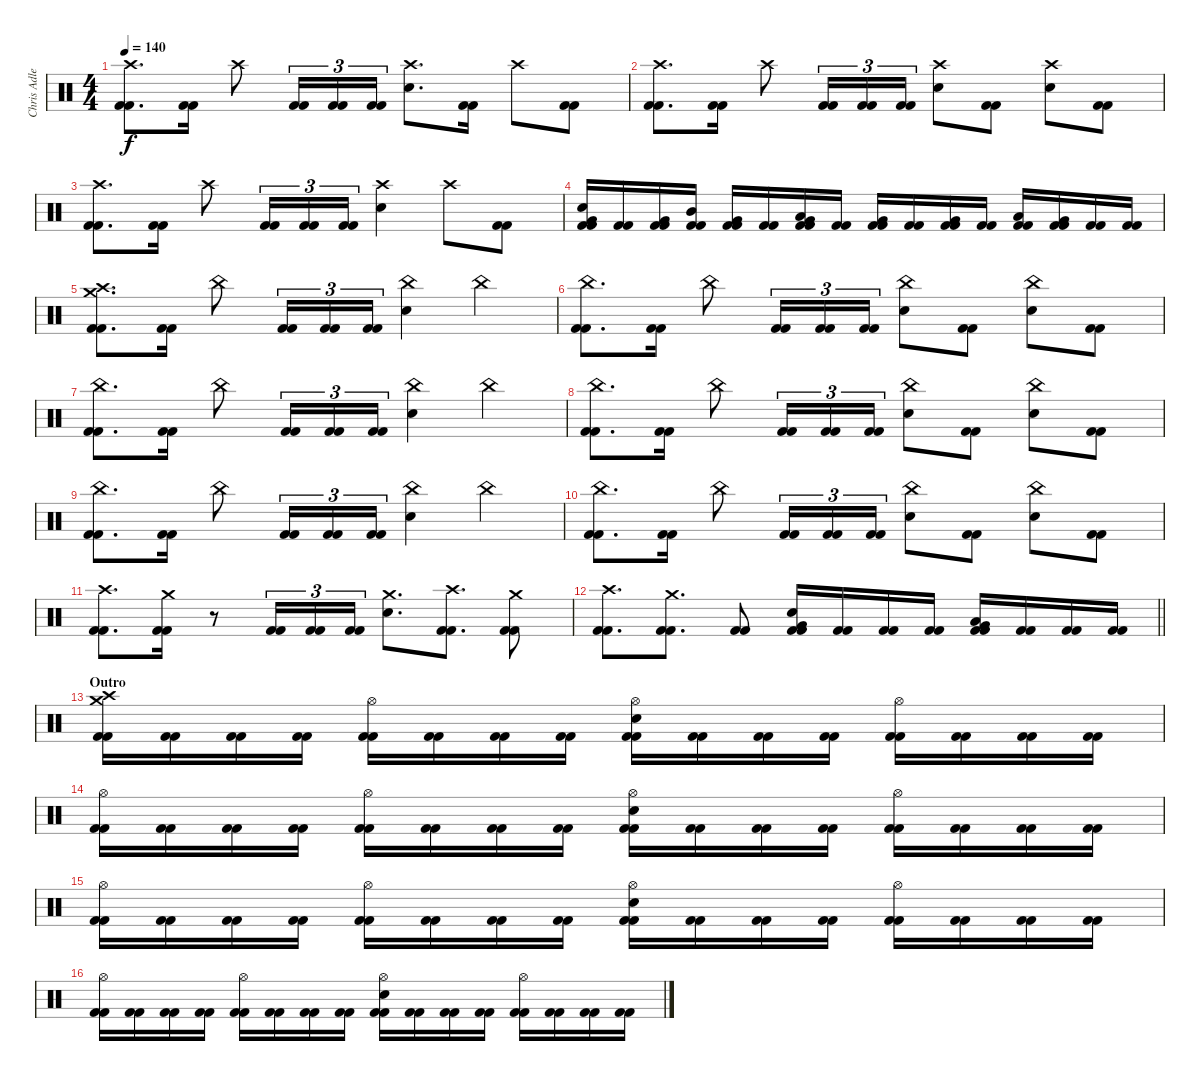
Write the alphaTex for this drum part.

\track ("Chris Adler" "Chris Adle") {instrument percussion}
\staff {score}
\articulation defaults
\ts (4 4)
\tempo 140
\clef neutral
\ks c
("Crash high (hit)" "Kick (hit) 2" "Kick (hit) 2").8{d dy f} ("Kick (hit) 2" "Kick (hit) 2").16 "Crash high (hit)".8 ("Kick (hit) 2" "Kick (hit) 2").16{tu (3 2)} ("Kick (hit) 2" "Kick (hit) 2").16{tu (3 2)} ("Kick (hit) 2" "Kick (hit) 2").16{tu (3 2)} ("Crash high (hit)" "Electric Snare (hit)").8{d} ("Kick (hit) 2" "Kick (hit) 2").16 "Crash high (hit)".8 ("Kick (hit) 2" "Kick (hit) 2").8 |
("Crash high (hit)" "Kick (hit) 2" "Kick (hit) 2").8{d} ("Kick (hit) 2" "Kick (hit) 2").16 "Crash high (hit)".8 ("Kick (hit) 2" "Kick (hit) 2").16{tu (3 2)} ("Kick (hit) 2" "Kick (hit) 2").16{tu (3 2)} ("Kick (hit) 2" "Kick (hit) 2").16{tu (3 2)} ("Crash high (hit)" "Electric Snare (hit)").8 ("Kick (hit) 2" "Kick (hit) 2").8 ("Crash high (hit)" "Electric Snare (hit)").8 ("Kick (hit) 2" "Kick (hit) 2").8 |
("Crash high (hit)" "Kick (hit) 2" "Kick (hit) 2").8{d} ("Kick (hit) 2" "Kick (hit) 2").16 "Crash high (hit)".8 ("Kick (hit) 2" "Kick (hit) 2").16{tu (3 2)} ("Kick (hit) 2" "Kick (hit) 2").16{tu (3 2)} ("Kick (hit) 2" "Kick (hit) 2").16{tu (3 2)} ("Crash high (hit)" "Electric Snare (hit)").4 "Crash high (hit)".8 ("Kick (hit) 2" "Kick (hit) 2").8 |
("Very Low Tom (hit)" "Electric Snare (hit)" "Kick (hit) 2" "Kick (hit) 2").16 ("Kick (hit) 2" "Kick (hit) 2").16 ("Very Low Tom (hit)" "Kick (hit) 2" "Kick (hit) 2").16 ("Mid Tom (hit)" "Kick (hit) 2" "Kick (hit) 2").16 ("Very Low Tom (hit)" "Kick (hit) 2" "Kick (hit) 2").16 ("Kick (hit) 2" "Kick (hit) 2").16 ("Low Tom (hit)" "Very Low Tom (hit)" "Kick (hit) 2" "Kick (hit) 2").16 ("Kick (hit) 2" "Kick (hit) 2").16 ("Very Low Tom (hit)" "Kick (hit) 2" "Kick (hit) 2").16 ("Kick (hit) 2" "Kick (hit) 2").16 ("Very Low Tom (hit)" "Kick (hit) 2" "Kick (hit) 2").16 ("Kick (hit) 2" "Kick (hit) 2").16 ("Low Floor Tom (hit)" "Kick (hit) 2" "Kick (hit) 2").16 ("Very Low Tom (hit)" "Kick (hit) 2" "Kick (hit) 2").16 ("Kick (hit) 2" "Kick (hit) 2").16 ("Kick (hit) 2" "Kick (hit) 2").16 |
("Crash medium (hit)" "Crash high (hit)" "Kick (hit) 2" "Kick (hit) 2").8{d} ("Kick (hit) 2" "Kick (hit) 2").16 "China (hit)".8 ("Kick (hit) 2" "Kick (hit) 2").16{tu (3 2)} ("Kick (hit) 2" "Kick (hit) 2").16{tu (3 2)} ("Kick (hit) 2" "Kick (hit) 2").16{tu (3 2)} ("China (hit)" "Electric Snare (hit)").4 "China (hit)".4 |
("China (hit)" "Kick (hit) 2" "Kick (hit) 2").8{d} ("Kick (hit) 2" "Kick (hit) 2").16 "China (hit)".8 ("Kick (hit) 2" "Kick (hit) 2").16{tu (3 2)} ("Kick (hit) 2" "Kick (hit) 2").16{tu (3 2)} ("Kick (hit) 2" "Kick (hit) 2").16{tu (3 2)} ("China (hit)" "Electric Snare (hit)").8 ("Kick (hit) 2" "Kick (hit) 2").8 ("China (hit)" "Electric Snare (hit)").8 ("Kick (hit) 2" "Kick (hit) 2").8 |
("China (hit)" "Kick (hit) 2" "Kick (hit) 2").8{d} ("Kick (hit) 2" "Kick (hit) 2").16 "China (hit)".8 ("Kick (hit) 2" "Kick (hit) 2").16{tu (3 2)} ("Kick (hit) 2" "Kick (hit) 2").16{tu (3 2)} ("Kick (hit) 2" "Kick (hit) 2").16{tu (3 2)} ("China (hit)" "Electric Snare (hit)").4 "China (hit)".4 |
("China (hit)" "Kick (hit) 2" "Kick (hit) 2").8{d} ("Kick (hit) 2" "Kick (hit) 2").16 "China (hit)".8 ("Kick (hit) 2" "Kick (hit) 2").16{tu (3 2)} ("Kick (hit) 2" "Kick (hit) 2").16{tu (3 2)} ("Kick (hit) 2" "Kick (hit) 2").16{tu (3 2)} ("China (hit)" "Electric Snare (hit)").8 ("Kick (hit) 2" "Kick (hit) 2").8 ("China (hit)" "Electric Snare (hit)").8 ("Kick (hit) 2" "Kick (hit) 2").8 |
("China (hit)" "Kick (hit) 2" "Kick (hit) 2").8{d} ("Kick (hit) 2" "Kick (hit) 2").16 "China (hit)".8 ("Kick (hit) 2" "Kick (hit) 2").16{tu (3 2)} ("Kick (hit) 2" "Kick (hit) 2").16{tu (3 2)} ("Kick (hit) 2" "Kick (hit) 2").16{tu (3 2)} ("China (hit)" "Electric Snare (hit)").4 "China (hit)".4 |
("China (hit)" "Kick (hit) 2" "Kick (hit) 2").8{d} ("Kick (hit) 2" "Kick (hit) 2").16 "China (hit)".8 ("Kick (hit) 2" "Kick (hit) 2").16{tu (3 2)} ("Kick (hit) 2" "Kick (hit) 2").16{tu (3 2)} ("Kick (hit) 2" "Kick (hit) 2").16{tu (3 2)} ("China (hit)" "Electric Snare (hit)").8 ("Kick (hit) 2" "Kick (hit) 2").8 ("China (hit)" "Electric Snare (hit)").8 ("Kick (hit) 2" "Kick (hit) 2").8 |
("Crash high (hit)" "Kick (hit) 2" "Kick (hit) 2").8{d} ("Crash medium (hit)" "Kick (hit) 2" "Kick (hit) 2").16 r.8 ("Kick (hit) 2" "Kick (hit) 2").16{tu (3 2)} ("Kick (hit) 2" "Kick (hit) 2").16{tu (3 2)} ("Kick (hit) 2" "Kick (hit) 2").16{tu (3 2)} ("Crash medium (hit)" "Electric Snare (hit)").8{d} ("Crash high (hit)" "Kick (hit) 2" "Kick (hit) 2").8{d} ("Crash medium (hit)" "Kick (hit) 2" "Kick (hit) 2").8 |
\barLineRight lightlight
("Crash high (hit)" "Kick (hit) 2" "Kick (hit) 2").8{d} ("Crash medium (hit)" "Kick (hit) 2" "Kick (hit) 2").8{d} ("Kick (hit) 2" "Kick (hit) 2").8 ("Very Low Tom (hit)" "Electric Snare (hit)" "Kick (hit) 2" "Kick (hit) 2").16 ("Kick (hit) 2" "Kick (hit) 2").16 ("Kick (hit) 2" "Kick (hit) 2").16 ("Kick (hit) 2" "Kick (hit) 2").16 ("Low Tom (hit)" "Very Low Tom (hit)" "Kick (hit) 2" "Kick (hit) 2").16 ("Kick (hit) 2" "Kick (hit) 2").16 ("Kick (hit) 2" "Kick (hit) 2").16 ("Kick (hit) 2" "Kick (hit) 2").16 |
\section ("" "Outro")
("Crash medium (hit)" "Crash high (hit)" "Kick (hit) 2" "Kick (hit) 2").16 ("Kick (hit) 2" "Kick (hit) 2").16 ("Kick (hit) 2" "Kick (hit) 2").16 ("Kick (hit) 2" "Kick (hit) 2").16 ("Hi-Hat (open)" "Kick (hit) 2" "Kick (hit) 2").16 ("Kick (hit) 2" "Kick (hit) 2").16 ("Kick (hit) 2" "Kick (hit) 2").16 ("Kick (hit) 2" "Kick (hit) 2").16 ("Hi-Hat (open)" "Electric Snare (hit)" "Kick (hit) 2" "Kick (hit) 2").16 ("Kick (hit) 2" "Kick (hit) 2").16 ("Kick (hit) 2" "Kick (hit) 2").16 ("Kick (hit) 2" "Kick (hit) 2").16 ("Hi-Hat (open)" "Kick (hit) 2" "Kick (hit) 2").16 ("Kick (hit) 2" "Kick (hit) 2").16 ("Kick (hit) 2" "Kick (hit) 2").16 ("Kick (hit) 2" "Kick (hit) 2").16 |
("Hi-Hat (open)" "Kick (hit) 2" "Kick (hit) 2").16 ("Kick (hit) 2" "Kick (hit) 2").16 ("Kick (hit) 2" "Kick (hit) 2").16 ("Kick (hit) 2" "Kick (hit) 2").16 ("Hi-Hat (open)" "Kick (hit) 2" "Kick (hit) 2").16 ("Kick (hit) 2" "Kick (hit) 2").16 ("Kick (hit) 2" "Kick (hit) 2").16 ("Kick (hit) 2" "Kick (hit) 2").16 ("Hi-Hat (open)" "Electric Snare (hit)" "Kick (hit) 2" "Kick (hit) 2").16 ("Kick (hit) 2" "Kick (hit) 2").16 ("Kick (hit) 2" "Kick (hit) 2").16 ("Kick (hit) 2" "Kick (hit) 2").16 ("Hi-Hat (open)" "Kick (hit) 2" "Kick (hit) 2").16 ("Kick (hit) 2" "Kick (hit) 2").16 ("Kick (hit) 2" "Kick (hit) 2").16 ("Kick (hit) 2" "Kick (hit) 2").16 |
("Hi-Hat (open)" "Kick (hit) 2" "Kick (hit) 2").16 ("Kick (hit) 2" "Kick (hit) 2").16 ("Kick (hit) 2" "Kick (hit) 2").16 ("Kick (hit) 2" "Kick (hit) 2").16 ("Hi-Hat (open)" "Kick (hit) 2" "Kick (hit) 2").16 ("Kick (hit) 2" "Kick (hit) 2").16 ("Kick (hit) 2" "Kick (hit) 2").16 ("Kick (hit) 2" "Kick (hit) 2").16 ("Hi-Hat (open)" "Electric Snare (hit)" "Kick (hit) 2" "Kick (hit) 2").16 ("Kick (hit) 2" "Kick (hit) 2").16 ("Kick (hit) 2" "Kick (hit) 2").16 ("Kick (hit) 2" "Kick (hit) 2").16 ("Hi-Hat (open)" "Kick (hit) 2" "Kick (hit) 2").16 ("Kick (hit) 2" "Kick (hit) 2").16 ("Kick (hit) 2" "Kick (hit) 2").16 ("Kick (hit) 2" "Kick (hit) 2").16 |
("Hi-Hat (open)" "Kick (hit) 2" "Kick (hit) 2").16 ("Kick (hit) 2" "Kick (hit) 2").16 ("Kick (hit) 2" "Kick (hit) 2").16 ("Kick (hit) 2" "Kick (hit) 2").16 ("Hi-Hat (open)" "Kick (hit) 2" "Kick (hit) 2").16 ("Kick (hit) 2" "Kick (hit) 2").16 ("Kick (hit) 2" "Kick (hit) 2").16 ("Kick (hit) 2" "Kick (hit) 2").16 ("Hi-Hat (open)" "Electric Snare (hit)" "Kick (hit) 2" "Kick (hit) 2").16 ("Kick (hit) 2" "Kick (hit) 2").16 ("Kick (hit) 2" "Kick (hit) 2").16 ("Kick (hit) 2" "Kick (hit) 2").16 ("Hi-Hat (open)" "Kick (hit) 2" "Kick (hit) 2").16 ("Kick (hit) 2" "Kick (hit) 2").16 ("Kick (hit) 2" "Kick (hit) 2").16 ("Kick (hit) 2" "Kick (hit) 2").16
